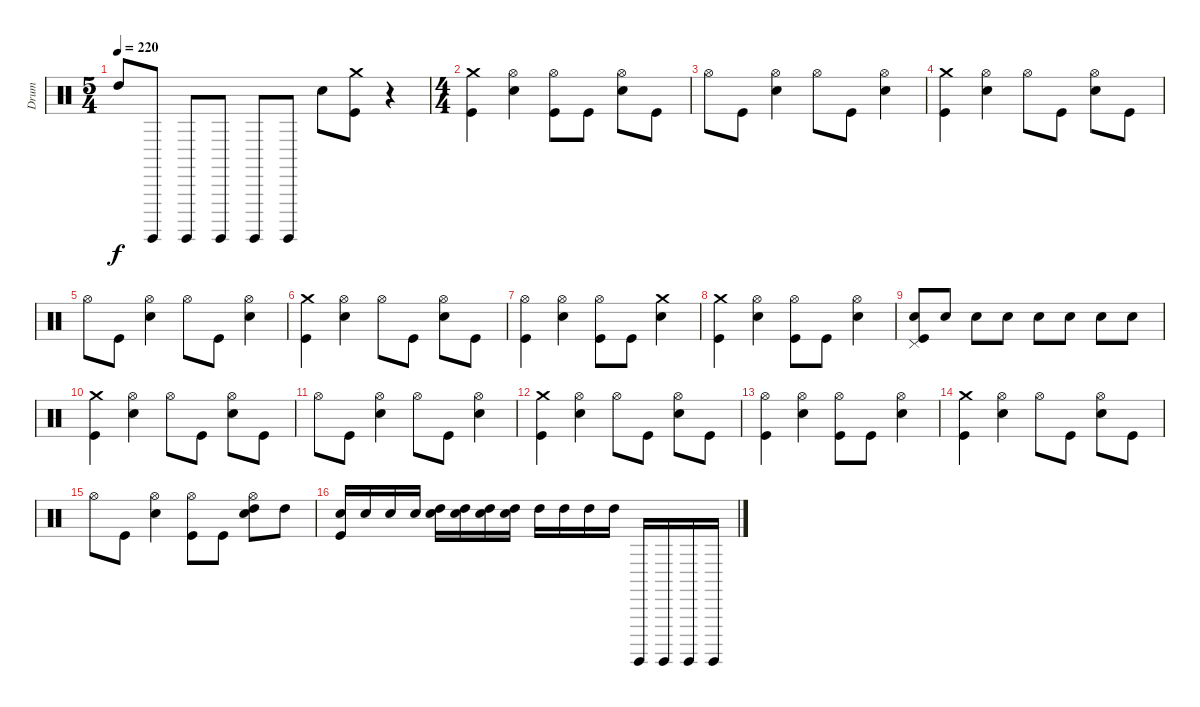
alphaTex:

\track ("Drum" "Drum") {instrument percussion}
\staff {score}
\articulation defaults
\ts (5 4)
\tempo 220
\clef neutral
\ks c "High Tom (hit)".8{dy f} "Surdo (hit)".8 "Surdo (hit)".8 "Surdo (hit)".8 "Surdo (hit)".8 "Surdo (hit)".8 "Snare (hit) 2".8
("Crash medium (hit)" "Kick (hit)").8 r.4 |
\ts (4 4)
("Crash medium (hit)" "Kick (hit)").4 ("Hi-Hat (open)" "Snare (hit) 2").4 ("Hi-Hat (open)" "Kick (hit)").8 "Kick (hit)".8 ("Hi-Hat (open)" "Snare (hit) 2").8 "Kick (hit)".8 |
"Hi-Hat (open)".8 "Kick (hit)".8 ("Hi-Hat (open)" "Snare (hit) 2").4 "Hi-Hat (open)".8 "Kick (hit)".8 ("Hi-Hat (open)" "Snare (hit) 2").4 |
("Crash medium (hit)" "Kick (hit)").4 ("Hi-Hat (open)" "Snare (hit) 2").4 "Hi-Hat (open)".8 "Kick (hit)".8 ("Hi-Hat (open)" "Snare (hit) 2").8 "Kick (hit)".8 |
"Hi-Hat (open)".8 "Kick (hit)".8 ("Hi-Hat (open)" "Snare (hit) 2").4 "Hi-Hat (open)".8 "Kick (hit)".8 ("Hi-Hat (open)" "Snare (hit) 2").4 |
("Crash medium (hit)" "Kick (hit)").4 ("Hi-Hat (open)" "Snare (hit) 2").4 "Hi-Hat (open)".8 "Kick (hit)".8 ("Hi-Hat (open)" "Snare (hit) 2").8 "Kick (hit)".8 |
("Hi-Hat (open)" "Kick (hit)").4 ("Hi-Hat (open)" "Snare (hit) 2").4 ("Hi-Hat (open)" "Kick (hit)").8 "Kick (hit)".8 ("Crash medium (hit)" "Snare (hit) 2").4 |
("Crash medium (hit)" "Kick (hit)").4 ("Hi-Hat (open)" "Snare (hit) 2").4 ("Hi-Hat (open)" "Kick (hit)").8 "Kick (hit)".8 ("Hi-Hat (open)" "Snare (hit) 2").4 |
("Pedal Hi-Hat (hit)" "Snare (hit) 2" "Kick (hit)").8 "Snare (hit) 2".8 "Snare (hit) 2".8 "Snare (hit) 2".8 "Snare (hit) 2".8 "Snare (hit) 2".8 "Snare (hit) 2".8 "Snare (hit) 2".8 |
("Crash medium (hit)" "Kick (hit)").4 ("Hi-Hat (open)" "Snare (hit) 2").4 "Hi-Hat (open)".8 "Kick (hit)".8 ("Hi-Hat (open)" "Snare (hit) 2").8 "Kick (hit)".8 |
"Hi-Hat (open)".8 "Kick (hit)".8 ("Hi-Hat (open)" "Snare (hit) 2").4 "Hi-Hat (open)".8 "Kick (hit)".8 ("Hi-Hat (open)" "Snare (hit) 2").4 |
("Crash medium (hit)" "Kick (hit)").4 ("Hi-Hat (open)" "Snare (hit) 2").4 "Hi-Hat (open)".8 "Kick (hit)".8 ("Hi-Hat (open)" "Snare (hit) 2").8 "Kick (hit)".8 |
("Hi-Hat (open)" "Kick (hit)").4 ("Hi-Hat (open)" "Snare (hit) 2").4 ("Hi-Hat (open)" "Kick (hit)").8 "Kick (hit)".8 ("Hi-Hat (open)" "Snare (hit) 2").4 |
("Crash medium (hit)" "Kick (hit)").4 ("Hi-Hat (open)" "Snare (hit) 2").4 "Hi-Hat (open)".8 "Kick (hit)".8 ("Hi-Hat (open)" "Snare (hit) 2").8 "Kick (hit)".8 |
"Hi-Hat (open)".8 "Kick (hit)".8 ("Hi-Hat (open)" "Snare (hit) 2").4 ("Hi-Hat (open)" "Kick (hit)").8 "Kick (hit)".8 ("Hi-Hat (open)" "High Tom (hit)" "Snare (hit) 2").8 "High Tom (hit)".8 |
("Snare (hit) 2" "Kick (hit)").16 "Snare (hit) 2".16 "Snare (hit) 2".16 "Snare (hit) 2".16 ("High Tom (hit)" "Snare (hit) 2").16 ("High Tom (hit)" "Snare (hit) 2").16 ("High Tom (hit)" "Snare (hit) 2").16 ("High Tom (hit)" "Snare (hit) 2").16 "High Tom (hit)".16 "High Tom (hit)".16 "High Tom (hit)".16 "High Tom (hit)".16 "Surdo (hit)".16 "Surdo (hit)".16 "Surdo (hit)".16 "Surdo (hit)".16
